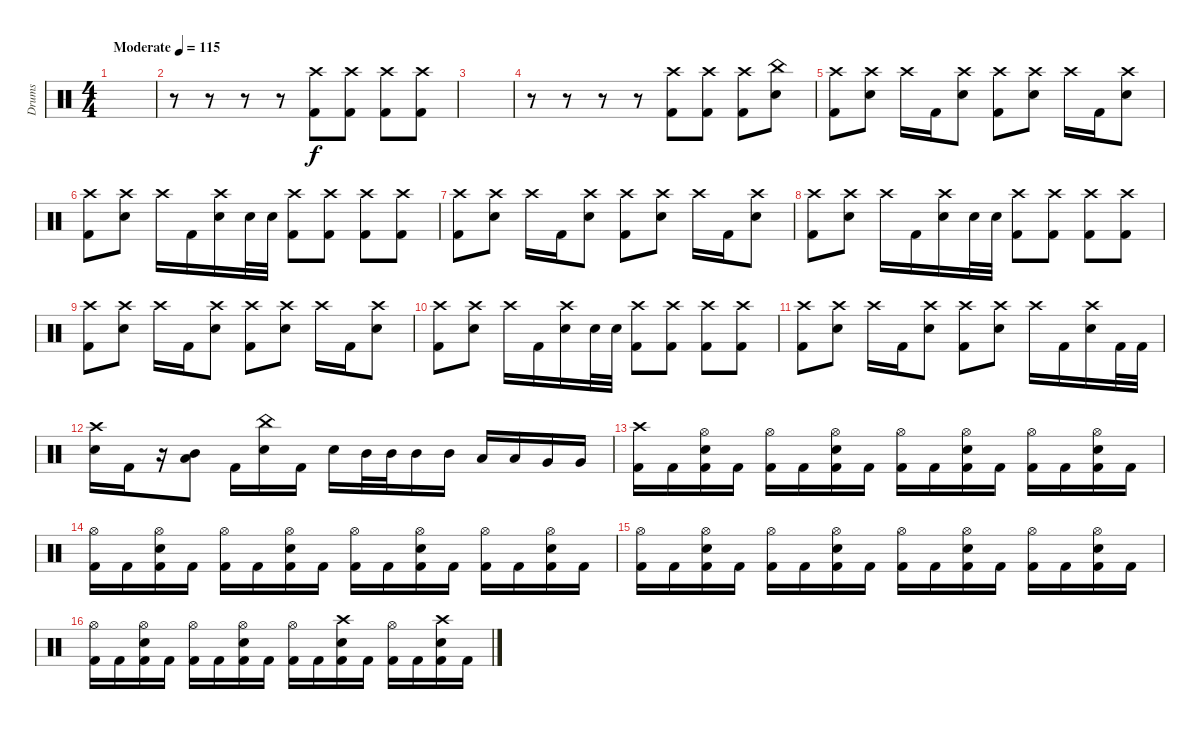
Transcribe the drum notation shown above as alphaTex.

\track ("Drums" "Drums") {instrument percussion}
\staff {score}
\articulation defaults
\ts (4 4)
\tempo (115 "Moderate")
\clef neutral
\ks c
|
r.8 r.8 r.8 r.8 ("Crash high (hit)" "Kick (hit) 2").8 ("Crash high (hit)" "Kick (hit) 2").8 ("Crash high (hit)" "Kick (hit) 2").8 ("Crash high (hit)" "Kick (hit) 2").8 |
|
r.8 r.8 r.8 r.8 ("Crash high (hit)" "Kick (hit) 2").8 ("Crash high (hit)" "Kick (hit) 2").8 ("Crash high (hit)" "Kick (hit) 2").8 ("China (hit)" "Electric Snare (hit)").8 |
("Crash high (hit)" "Kick (hit) 2").8 ("Crash high (hit)" "Electric Snare (hit)").8 "Crash high (hit)".16 "Kick (hit) 2".16 ("Crash high (hit)" "Electric Snare (hit)").8 ("Crash high (hit)" "Kick (hit) 2").8 ("Crash high (hit)" "Electric Snare (hit)").8 "Crash high (hit)".16 "Kick (hit) 2".16 ("Crash high (hit)" "Electric Snare (hit)").8 |
("Crash high (hit)" "Kick (hit) 2").8 ("Crash high (hit)" "Electric Snare (hit)").8 "Crash high (hit)".16 "Kick (hit) 2".16 ("Crash high (hit)" "Electric Snare (hit)").16 "Electric Snare (hit)".32 "Electric Snare (hit)".32 ("Crash high (hit)" "Kick (hit) 2").8 ("Crash high (hit)" "Kick (hit) 2").8 ("Crash high (hit)" "Kick (hit) 2").8 ("Crash high (hit)" "Kick (hit) 2").8 |
("Crash high (hit)" "Kick (hit) 2").8 ("Crash high (hit)" "Electric Snare (hit)").8 "Crash high (hit)".16 "Kick (hit) 2".16 ("Crash high (hit)" "Electric Snare (hit)").8 ("Crash high (hit)" "Kick (hit) 2").8 ("Crash high (hit)" "Electric Snare (hit)").8 "Crash high (hit)".16 "Kick (hit) 2".16 ("Crash high (hit)" "Electric Snare (hit)").8 |
("Crash high (hit)" "Kick (hit) 2").8 ("Crash high (hit)" "Electric Snare (hit)").8 "Crash high (hit)".16 "Kick (hit) 2".16 ("Crash high (hit)" "Electric Snare (hit)").16 "Electric Snare (hit)".32 "Electric Snare (hit)".32 ("Crash high (hit)" "Kick (hit) 2").8 ("Crash high (hit)" "Kick (hit) 2").8 ("Crash high (hit)" "Kick (hit) 2").8 ("Crash high (hit)" "Kick (hit) 2").8 |
("Crash high (hit)" "Kick (hit) 2").8 ("Crash high (hit)" "Electric Snare (hit)").8 "Crash high (hit)".16 "Kick (hit) 2".16 ("Crash high (hit)" "Electric Snare (hit)").8 ("Crash high (hit)" "Kick (hit) 2").8 ("Crash high (hit)" "Electric Snare (hit)").8 "Crash high (hit)".16 "Kick (hit) 2".16 ("Crash high (hit)" "Electric Snare (hit)").8 |
("Crash high (hit)" "Kick (hit) 2").8 ("Crash high (hit)" "Electric Snare (hit)").8 "Crash high (hit)".16 "Kick (hit) 2".16 ("Crash high (hit)" "Electric Snare (hit)").16 "Electric Snare (hit)".32 "Electric Snare (hit)".32 ("Crash high (hit)" "Kick (hit) 2").8 ("Crash high (hit)" "Kick (hit) 2").8 ("Crash high (hit)" "Kick (hit) 2").8 ("Crash high (hit)" "Kick (hit) 2").8 |
("Crash high (hit)" "Kick (hit) 2").8 ("Crash high (hit)" "Electric Snare (hit)").8 "Crash high (hit)".16 "Kick (hit) 2".16 ("Crash high (hit)" "Electric Snare (hit)").8 ("Crash high (hit)" "Kick (hit) 2").8 ("Crash high (hit)" "Electric Snare (hit)").8 "Crash high (hit)".16 "Kick (hit) 2".16 ("Crash high (hit)" "Electric Snare (hit)").16 "Kick (hit) 2".32 "Kick (hit) 2".32 |
("Crash high (hit)" "Electric Snare (hit)").16 "Kick (hit) 2".16 r.16 ("Mid Tom (hit)" "Low Tom (hit)").8 "Kick (hit) 2".16 ("China (hit)" "Electric Snare (hit)").16 "Kick (hit) 2".16 "Electric Snare (hit)".16 "Mid Tom (hit)".32 "Mid Tom (hit)".32 "Mid Tom (hit)".16 "Mid Tom (hit)".16 "Low Tom (hit)".16 "Low Tom (hit)".16 "Very Low Tom (hit)".16 "Very Low Tom (hit)".16 |
("Crash high (hit)" "Kick (hit) 2").16 "Kick (hit) 2".16 ("Hi-Hat (open)" "Electric Snare (hit)" "Kick (hit) 2").16 "Kick (hit) 2".16 ("Hi-Hat (open)" "Kick (hit) 2").16 "Kick (hit) 2".16 ("Hi-Hat (open)" "Electric Snare (hit)" "Kick (hit) 2").16 "Kick (hit) 2".16 ("Hi-Hat (open)" "Kick (hit) 2").16 "Kick (hit) 2".16 ("Hi-Hat (open)" "Electric Snare (hit)" "Kick (hit) 2").16 "Kick (hit) 2".16 ("Hi-Hat (open)" "Kick (hit) 2").16 "Kick (hit) 2".16 ("Hi-Hat (open)" "Electric Snare (hit)" "Kick (hit) 2").16 "Kick (hit) 2".16 |
("Hi-Hat (open)" "Kick (hit) 2").16 "Kick (hit) 2".16 ("Hi-Hat (open)" "Electric Snare (hit)" "Kick (hit) 2").16 "Kick (hit) 2".16 ("Hi-Hat (open)" "Kick (hit) 2").16 "Kick (hit) 2".16 ("Hi-Hat (open)" "Electric Snare (hit)" "Kick (hit) 2").16 "Kick (hit) 2".16 ("Hi-Hat (open)" "Kick (hit) 2").16 "Kick (hit) 2".16 ("Hi-Hat (open)" "Electric Snare (hit)" "Kick (hit) 2").16 "Kick (hit) 2".16 ("Hi-Hat (open)" "Kick (hit) 2").16 "Kick (hit) 2".16 ("Hi-Hat (open)" "Electric Snare (hit)" "Kick (hit) 2").16 "Kick (hit) 2".16 |
("Hi-Hat (open)" "Kick (hit) 2").16 "Kick (hit) 2".16 ("Hi-Hat (open)" "Electric Snare (hit)" "Kick (hit) 2").16 "Kick (hit) 2".16 ("Hi-Hat (open)" "Kick (hit) 2").16 "Kick (hit) 2".16 ("Hi-Hat (open)" "Electric Snare (hit)" "Kick (hit) 2").16 "Kick (hit) 2".16 ("Hi-Hat (open)" "Kick (hit) 2").16 "Kick (hit) 2".16 ("Hi-Hat (open)" "Electric Snare (hit)" "Kick (hit) 2").16 "Kick (hit) 2".16 ("Hi-Hat (open)" "Kick (hit) 2").16 "Kick (hit) 2".16 ("Hi-Hat (open)" "Electric Snare (hit)" "Kick (hit) 2").16 "Kick (hit) 2".16 |
("Hi-Hat (open)" "Kick (hit) 2").16 "Kick (hit) 2".16 ("Hi-Hat (open)" "Electric Snare (hit)" "Kick (hit) 2").16 "Kick (hit) 2".16 ("Hi-Hat (open)" "Kick (hit) 2").16 "Kick (hit) 2".16 ("Hi-Hat (open)" "Electric Snare (hit)" "Kick (hit) 2").16 "Kick (hit) 2".16 ("Hi-Hat (open)" "Kick (hit) 2").16 "Kick (hit) 2".16 ("Crash high (hit)" "Electric Snare (hit)" "Kick (hit) 2").16 "Kick (hit) 2".16 ("Hi-Hat (open)" "Kick (hit) 2").16 "Kick (hit) 2".16 ("Crash high (hit)" "Electric Snare (hit)" "Kick (hit) 2").16 "Kick (hit) 2".16
